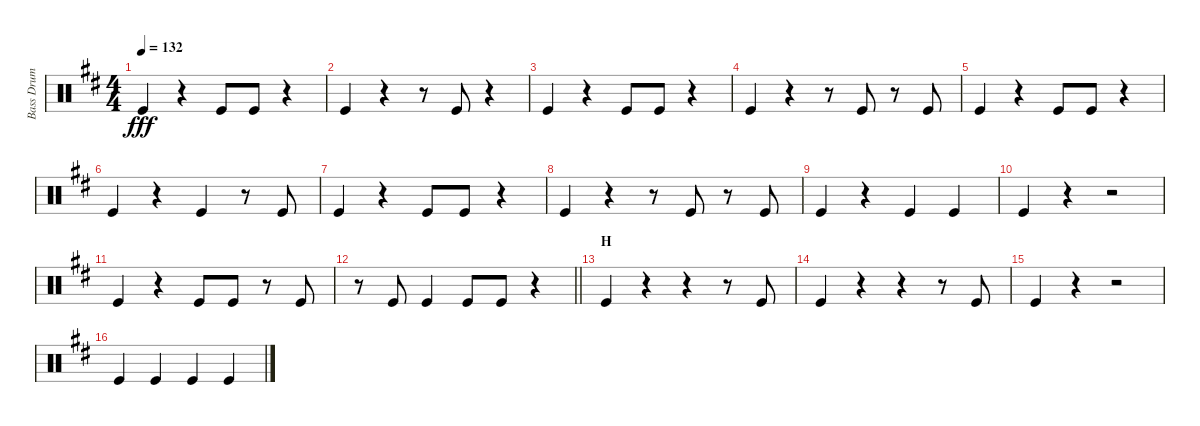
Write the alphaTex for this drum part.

\track ("Bass Drum" "Bass Drum") {instrument percussion}
\staff {score}
\articulation defaults
\ts (4 4)
\tempo 132
\clef neutral
\ks d "Kick (hit)".4{dy fff}
r.4 "Kick (hit)".8 "Kick (hit)".8 r.4 |
"Kick (hit)".4 r.4 r.8 "Kick (hit)".8 r.4 |
"Kick (hit)".4 r.4 "Kick (hit)".8 "Kick (hit)".8 r.4 |
"Kick (hit)".4 r.4 r.8 "Kick (hit)".8 r.8 "Kick (hit)".8 |
"Kick (hit)".4 r.4 "Kick (hit)".8 "Kick (hit)".8 r.4 |
"Kick (hit)".4 r.4 "Kick (hit)".4 r.8 "Kick (hit)".8 |
"Kick (hit)".4 r.4 "Kick (hit)".8 "Kick (hit)".8 r.4 |
"Kick (hit)".4 r.4 r.8 "Kick (hit)".8 r.8 "Kick (hit)".8 |
"Kick (hit)".4 r.4 "Kick (hit)".4 "Kick (hit)".4 |
"Kick (hit)".4 r.4 r.2 |
"Kick (hit)".4 r.4 "Kick (hit)".8 "Kick (hit)".8 r.8 "Kick (hit)".8 |
\barLineRight lightlight
r.8 "Kick (hit)".8 "Kick (hit)".4 "Kick (hit)".8 "Kick (hit)".8 r.4 |
\section ("" "H")
"Kick (hit)".4 r.4 r.4 r.8 "Kick (hit)".8 |
"Kick (hit)".4 r.4 r.4 r.8 "Kick (hit)".8 |
"Kick (hit)".4 r.4 r.2 |
"Kick (hit)".4 "Kick (hit)".4 "Kick (hit)".4 "Kick (hit)".4
